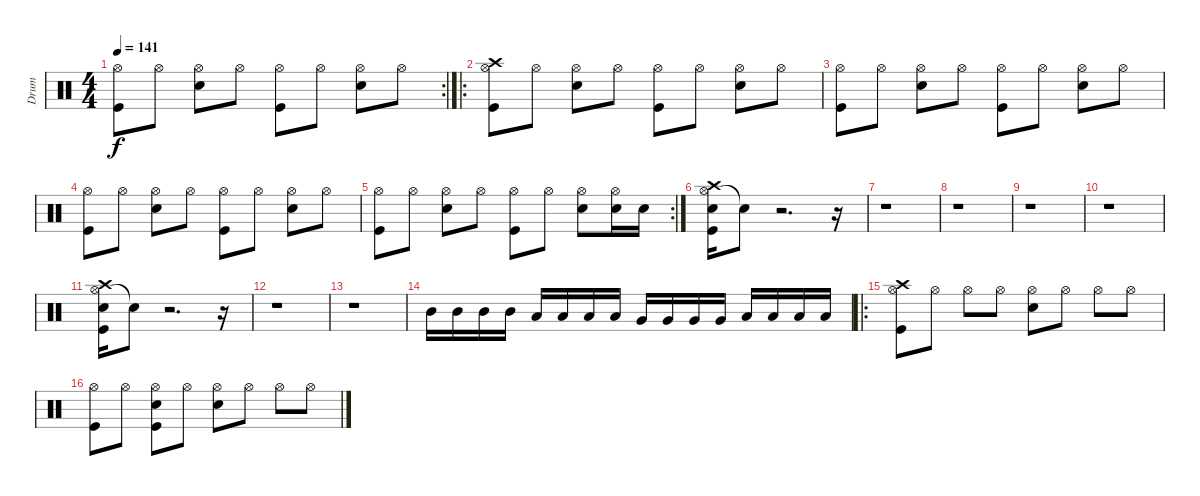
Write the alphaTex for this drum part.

\track ("Drum" "Drum") {instrument percussion}
\staff {score}
\articulation defaults
\rc 2
\ts (4 4)
\tempo 141
\clef neutral
\ks c
("Hi-Hat (open)" "Kick (hit)").8{dy f} "Hi-Hat (open)".8 ("Hi-Hat (open)" "Electric Snare (hit)").8 "Hi-Hat (open)".8 ("Hi-Hat (open)" "Kick (hit)").8 "Hi-Hat (open)".8 ("Hi-Hat (open)" "Electric Snare (hit)").8 "Hi-Hat (open)".8 |
\ro
("Hi-Hat (open)" "Crash high (hit)" "Kick (hit)").8 "Hi-Hat (open)".8 ("Hi-Hat (open)" "Electric Snare (hit)").8 "Hi-Hat (open)".8 ("Hi-Hat (open)" "Kick (hit)").8 "Hi-Hat (open)".8 ("Hi-Hat (open)" "Electric Snare (hit)").8 "Hi-Hat (open)".8 |
("Hi-Hat (open)" "Kick (hit)").8 "Hi-Hat (open)".8 ("Hi-Hat (open)" "Electric Snare (hit)").8 "Hi-Hat (open)".8 ("Hi-Hat (open)" "Kick (hit)").8 "Hi-Hat (open)".8 ("Hi-Hat (open)" "Electric Snare (hit)").8 "Hi-Hat (open)".8 |
("Hi-Hat (open)" "Kick (hit)").8 "Hi-Hat (open)".8 ("Hi-Hat (open)" "Electric Snare (hit)").8 "Hi-Hat (open)".8 ("Hi-Hat (open)" "Kick (hit)").8 "Hi-Hat (open)".8 ("Hi-Hat (open)" "Electric Snare (hit)").8 "Hi-Hat (open)".8 |
\rc 2
("Hi-Hat (open)" "Kick (hit)").8 "Hi-Hat (open)".8 ("Hi-Hat (open)" "Electric Snare (hit)").8 "Hi-Hat (open)".8 ("Hi-Hat (open)" "Kick (hit)").8 "Hi-Hat (open)".8 ("Hi-Hat (open)" "Electric Snare (hit)").8 ("Hi-Hat (open)" "Electric Snare (hit)").16 "Electric Snare (hit)".16 |
("Hi-Hat (open)" "Crash high (hit)" "Electric Snare (hit)" "Kick (hit)").16 "Snare (hit)"{t}.8 r.2{d} r.16 |
r.1 |
r.1 |
r.1 |
r.1 |
("Hi-Hat (open)" "Crash high (hit)" "Electric Snare (hit)" "Kick (hit)").16 "Snare (hit)"{t}.8 r.2{d} r.16 |
r.1 |
r.1 |
"Mid Tom (hit)".16 "Mid Tom (hit)".16 "Mid Tom (hit)".16 "Mid Tom (hit)".16 "Low Tom (hit)".16 "Low Tom (hit)".16 "Low Tom (hit)".16 "Low Tom (hit)".16 "Very Low Tom (hit)".16 "Very Low Tom (hit)".16 "Very Low Tom (hit)".16 "Very Low Tom (hit)".16 "Low Floor Tom (hit)".16 "Low Floor Tom (hit)".16 "Low Floor Tom (hit)".16 "Low Floor Tom (hit)".16 |
\ro
("Hi-Hat (open)" "Crash high (hit)" "Kick (hit)").8 "Hi-Hat (open)".8 "Hi-Hat (open)".8 "Hi-Hat (open)".8 ("Hi-Hat (open)" "Electric Snare (hit)").8 "Hi-Hat (open)".8 "Hi-Hat (open)".8 "Hi-Hat (open)".8 |
("Hi-Hat (open)" "Kick (hit)").8 "Hi-Hat (open)".8 ("Hi-Hat (open)" "Electric Snare (hit)" "Kick (hit)").8 "Hi-Hat (open)".8 ("Hi-Hat (open)" "Electric Snare (hit)").8 "Hi-Hat (open)".8 "Hi-Hat (open)".8 "Hi-Hat (open)".8
